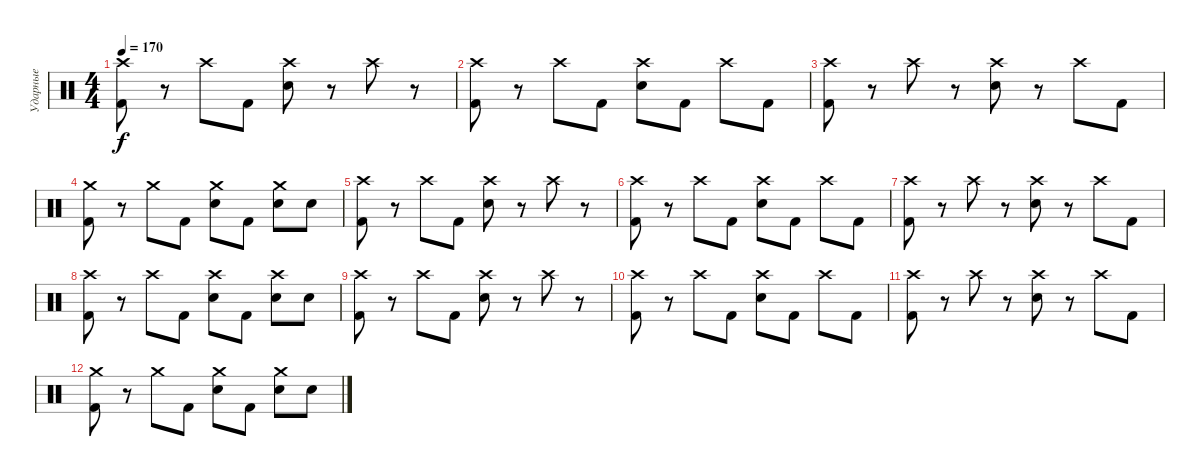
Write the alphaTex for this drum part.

\track ("Ударные" "Ударные") {instrument percussion}
\staff {score}
\articulation defaults
\ts (4 4)
\tempo 170
\clef neutral
\ks c
("Crash high (hit)" "Kick (hit) 2").8{dy f} r.8 "Crash high (hit)".8 "Kick (hit) 2".8 ("Crash high (hit)" "Snare (hit) 2").8 r.8 "Crash high (hit)".8 r.8 |
("Crash high (hit)" "Kick (hit) 2").8 r.8 "Crash high (hit)".8 "Kick (hit) 2".8 ("Crash high (hit)" "Snare (hit) 2").8 "Kick (hit) 2".8 "Crash high (hit)".8 "Kick (hit) 2".8 |
("Crash high (hit)" "Kick (hit) 2").8 r.8 "Crash high (hit)".8 r.8 ("Crash high (hit)" "Snare (hit) 2").8 r.8 "Crash high (hit)".8 "Kick (hit) 2".8 |
("Crash medium (hit)" "Kick (hit) 2").8 r.8 "Crash medium (hit)".8 "Kick (hit) 2".8 ("Crash medium (hit)" "Snare (hit) 2").8 "Kick (hit) 2".8 ("Crash medium (hit)" "Snare (hit) 2").8 "Snare (hit) 2".8 |
("Crash high (hit)" "Kick (hit) 2").8 r.8 "Crash high (hit)".8 "Kick (hit) 2".8 ("Crash high (hit)" "Snare (hit) 2").8 r.8 "Crash high (hit)".8 r.8 |
("Crash high (hit)" "Kick (hit) 2").8 r.8 "Crash high (hit)".8 "Kick (hit) 2".8 ("Crash high (hit)" "Snare (hit) 2").8 "Kick (hit) 2".8 "Crash high (hit)".8 "Kick (hit) 2".8 |
("Crash high (hit)" "Kick (hit) 2").8 r.8 "Crash high (hit)".8 r.8 ("Crash high (hit)" "Snare (hit) 2").8 r.8 "Crash high (hit)".8 "Kick (hit) 2".8 |
("Crash high (hit)" "Kick (hit) 2").8 r.8 "Crash high (hit)".8 "Kick (hit) 2".8 ("Crash high (hit)" "Snare (hit) 2").8 "Kick (hit) 2".8 ("Crash high (hit)" "Snare (hit) 2").8 "Snare (hit) 2".8 |
("Crash high (hit)" "Kick (hit) 2").8 r.8 "Crash high (hit)".8 "Kick (hit) 2".8 ("Crash high (hit)" "Snare (hit) 2").8 r.8 "Crash high (hit)".8 r.8 |
("Crash high (hit)" "Kick (hit) 2").8 r.8 "Crash high (hit)".8 "Kick (hit) 2".8 ("Crash high (hit)" "Snare (hit) 2").8 "Kick (hit) 2".8 "Crash high (hit)".8 "Kick (hit) 2".8 |
("Crash high (hit)" "Kick (hit) 2").8 r.8 "Crash high (hit)".8 r.8 ("Crash high (hit)" "Snare (hit) 2").8 r.8 "Crash high (hit)".8 "Kick (hit) 2".8 |
("Crash medium (hit)" "Kick (hit) 2").8 r.8 "Crash medium (hit)".8 "Kick (hit) 2".8 ("Crash medium (hit)" "Snare (hit) 2").8 "Kick (hit) 2".8 ("Crash medium (hit)" "Snare (hit) 2").8 "Snare (hit) 2".8
